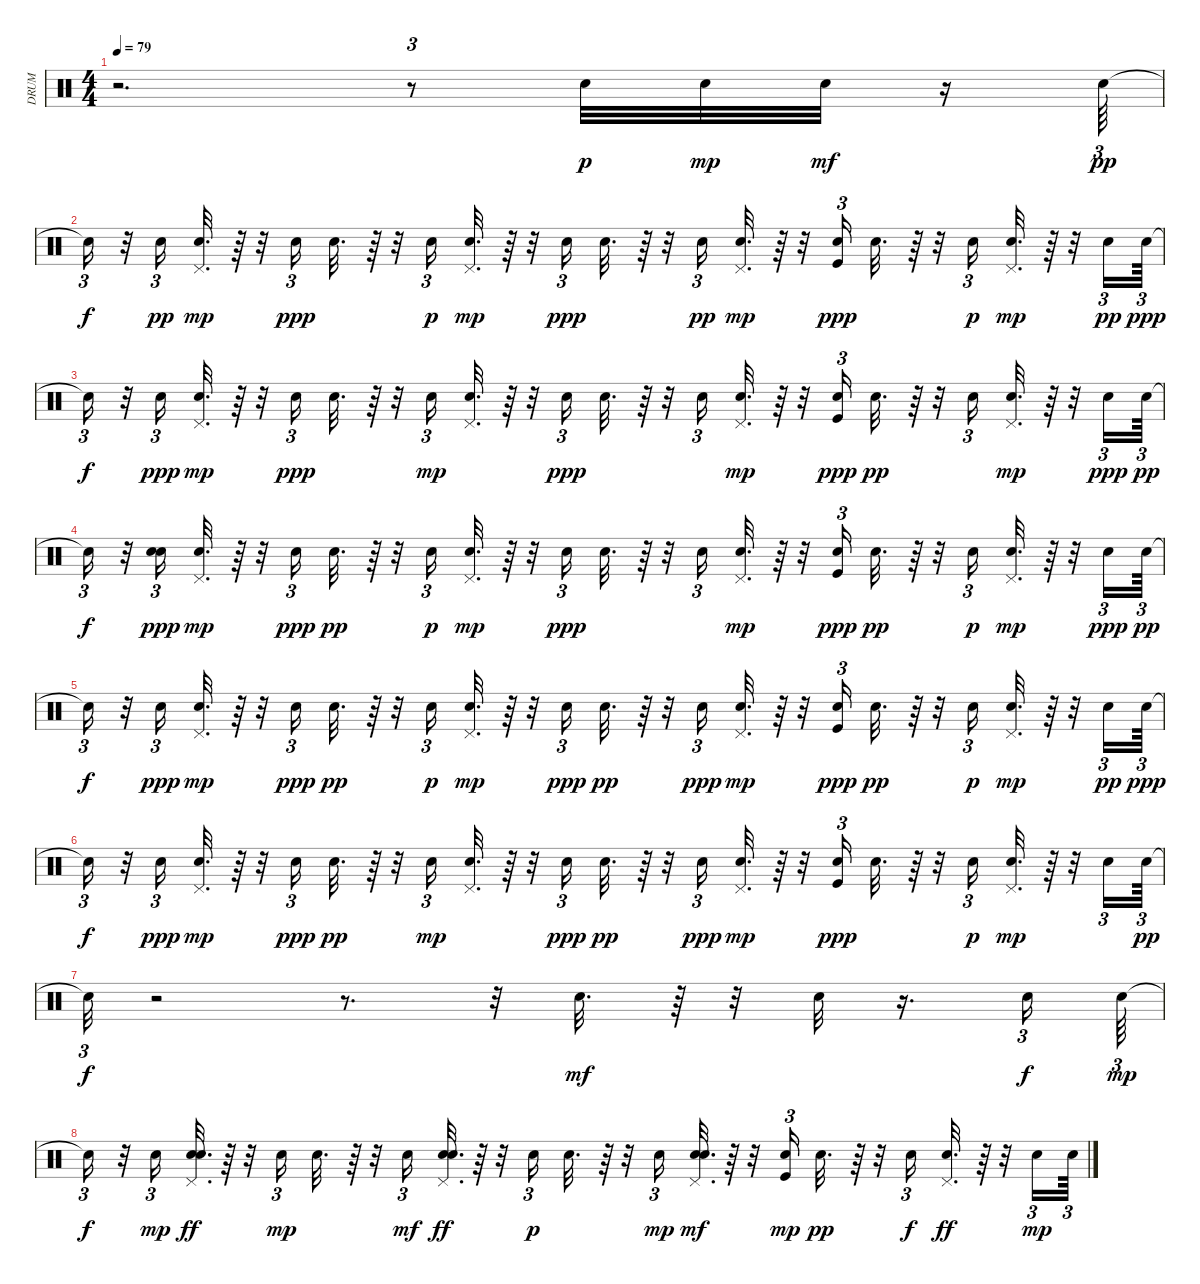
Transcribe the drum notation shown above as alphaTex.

\track ("DRUM" "DRUM") {instrument percussion}
\staff {score}
\articulation defaults
\ts (4 4)
\tempo 79
\clef neutral
\ks c
r.2{d dy p} r.8{tu (3 2)} "Snare (hit) 2".32 "Snare (hit) 2".32{dy mp} "Hand Clap (hit)".32{dy mf} r.16 "Snare (hit) 2".64{tu (3 2) dy pp} |
"Snare (hit)"{t}.16{tu (3 2) dy f} r.32 "Snare (hit) 2".16{tu (3 2) dy pp} ("Snare (hit) 2" "Pedal Hi-Hat (hit)").32{d dy mp} r.64 r.32 "Snare (hit) 2".16{tu (3 2) dy ppp} "Snare (hit) 2".32{d} r.64 r.32 "Snare (hit) 2".16{tu (3 2) dy p} ("Snare (hit) 2" "Pedal Hi-Hat (hit)").32{d dy mp} r.64 r.32 "Snare (hit) 2".16{tu (3 2) dy ppp} "Snare (hit) 2".32{d} r.64 r.32 "Snare (hit) 2".16{tu (3 2) dy pp} ("Snare (hit) 2" "Pedal Hi-Hat (hit)").32{d dy mp} r.64 r.32 ("Kick (hit)" "Snare (hit) 2").16{tu (3 2) dy ppp} "Snare (hit) 2".32{d} r.64 r.32 "Hand Clap (hit)".16{tu (3 2) dy p} ("Snare (hit) 2" "Pedal Hi-Hat (hit)").32{d dy mp} r.64 r.32 "Snare (hit) 2".16{tu (3 2) dy pp} "Snare (hit) 2".64{tu (3 2) dy ppp} |
"Snare (hit)"{t}.16{tu (3 2) dy f} r.32 "Snare (hit) 2".16{tu (3 2) dy ppp} ("Snare (hit) 2" "Pedal Hi-Hat (hit)").32{d dy mp} r.64 r.32 "Snare (hit) 2".16{tu (3 2) dy ppp} "Snare (hit) 2".32{d} r.64 r.32 "Snare (hit) 2".16{tu (3 2) dy mp} ("Snare (hit) 2" "Pedal Hi-Hat (hit)").32{d} r.64 r.32 "Snare (hit) 2".16{tu (3 2) dy ppp} "Snare (hit) 2".32{d} r.64 r.32 "Snare (hit) 2".16{tu (3 2)} ("Snare (hit) 2" "Pedal Hi-Hat (hit)").32{d dy mp} r.64 r.32 ("Kick (hit)" "Snare (hit) 2").16{tu (3 2) dy ppp} "Snare (hit) 2".32{d dy pp} r.64 r.32 "Hand Clap (hit)".16{tu (3 2)} ("Snare (hit) 2" "Pedal Hi-Hat (hit)").32{d dy mp} r.64 r.32 "Snare (hit) 2".16{tu (3 2) dy ppp} "Snare (hit) 2".64{tu (3 2) dy pp} |
"Snare (hit)"{t}.16{tu (3 2) dy f} r.32 ("Snare (hit) 2" "Electric Snare (hit)").16{tu (3 2) dy ppp} ("Snare (hit) 2" "Pedal Hi-Hat (hit)").32{d dy mp} r.64 r.32 "Snare (hit) 2".16{tu (3 2) dy ppp} "Snare (hit) 2".32{d dy pp} r.64 r.32 "Snare (hit) 2".16{tu (3 2) dy p} ("Snare (hit) 2" "Pedal Hi-Hat (hit)").32{d dy mp} r.64 r.32 "Snare (hit) 2".16{tu (3 2) dy ppp} "Snare (hit) 2".32{d} r.64 r.32 "Snare (hit) 2".16{tu (3 2)} ("Snare (hit) 2" "Pedal Hi-Hat (hit)").32{d dy mp} r.64 r.32 ("Kick (hit)" "Snare (hit) 2").16{tu (3 2) dy ppp} "Snare (hit) 2".32{d dy pp} r.64 r.32 "Hand Clap (hit)".16{tu (3 2) dy p} ("Snare (hit) 2" "Pedal Hi-Hat (hit)").32{d dy mp} r.64 r.32 "Snare (hit) 2".16{tu (3 2) dy ppp} "Snare (hit) 2".64{tu (3 2) dy pp} |
"Snare (hit)"{t}.16{tu (3 2) dy f} r.32 "Snare (hit) 2".16{tu (3 2) dy ppp} ("Snare (hit) 2" "Pedal Hi-Hat (hit)").32{d dy mp} r.64 r.32 "Snare (hit) 2".16{tu (3 2) dy ppp} "Snare (hit) 2".32{d dy pp} r.64 r.32 "Snare (hit) 2".16{tu (3 2) dy p} ("Snare (hit) 2" "Pedal Hi-Hat (hit)").32{d dy mp} r.64 r.32 "Snare (hit) 2".16{tu (3 2) dy ppp} "Snare (hit) 2".32{d dy pp} r.64 r.32 "Snare (hit) 2".16{tu (3 2) dy ppp} ("Snare (hit) 2" "Pedal Hi-Hat (hit)").32{d dy mp} r.64 r.32 ("Kick (hit)" "Snare (hit) 2").16{tu (3 2) dy ppp} "Snare (hit) 2".32{d dy pp} r.64 r.32 "Hand Clap (hit)".16{tu (3 2) dy p} ("Snare (hit) 2" "Pedal Hi-Hat (hit)").32{d dy mp} r.64 r.32 "Snare (hit) 2".16{tu (3 2) dy pp} "Snare (hit) 2".64{tu (3 2) dy ppp} |
"Snare (hit)"{t}.16{tu (3 2) dy f} r.32 "Snare (hit) 2".16{tu (3 2) dy ppp} ("Snare (hit) 2" "Pedal Hi-Hat (hit)").32{d dy mp} r.64 r.32 "Snare (hit) 2".16{tu (3 2) dy ppp} "Snare (hit) 2".32{d dy pp} r.64 r.32 "Snare (hit) 2".16{tu (3 2) dy mp} ("Snare (hit) 2" "Pedal Hi-Hat (hit)").32{d} r.64 r.32 "Snare (hit) 2".16{tu (3 2) dy ppp} "Snare (hit) 2".32{d dy pp} r.64 r.32 "Snare (hit) 2".16{tu (3 2) dy ppp} ("Snare (hit) 2" "Pedal Hi-Hat (hit)").32{d dy mp} r.64 r.32 ("Kick (hit)" "Snare (hit) 2").16{tu (3 2) dy ppp} "Snare (hit) 2".32{d} r.64 r.32 "Hand Clap (hit)".16{tu (3 2) dy p} ("Snare (hit) 2" "Pedal Hi-Hat (hit)").32{d dy mp} r.64 r.32 "Hand Clap (hit)".16{tu (3 2)} "Snare (hit) 2".64{tu (3 2) dy pp} |
"Snare (hit)"{t}.32{tu (3 2) dy f} r.2 r.8{d} r.32 "Hand Clap (hit)".32{d dy mf} r.64 r.32 "Hand Clap (hit)".32 r.16{d} "Hand Clap (hit)".16{tu (3 2) dy f} "Snare (hit) 2".64{tu (3 2) dy mp} |
"Snare (hit)"{t}.16{tu (3 2) dy f} r.32 "Snare (hit) 2".16{tu (3 2) dy mp} ("Hand Clap (hit)" "Snare (hit) 2" "Pedal Hi-Hat (hit)").32{d dy ff} r.64 r.32 "Snare (hit) 2".16{tu (3 2) dy mp} "Snare (hit) 2".32{d} r.64 r.32 "Snare (hit) 2".16{tu (3 2) dy mf} ("Hand Clap (hit)" "Pedal Hi-Hat (hit)" "Snare (hit) 2").32{d dy ff} r.64 r.32 "Snare (hit) 2".16{tu (3 2) dy p} "Snare (hit) 2".32{d} r.64 r.32 "Snare (hit) 2".16{tu (3 2) dy mp} ("Snare (hit) 2" "Hand Clap (hit)" "Pedal Hi-Hat (hit)").32{d dy mf} r.64 r.32 ("Snare (hit) 2" "Kick (hit)").16{tu (3 2) dy mp} "Snare (hit) 2".32{d dy pp} r.64 r.32 "Hand Clap (hit)".16{tu (3 2) dy f} ("Snare (hit) 2" "Pedal Hi-Hat (hit)").32{d dy ff} r.64 r.32 "Snare (hit) 2".16{tu (3 2) dy mp} "Snare (hit) 2".64{tu (3 2)}
